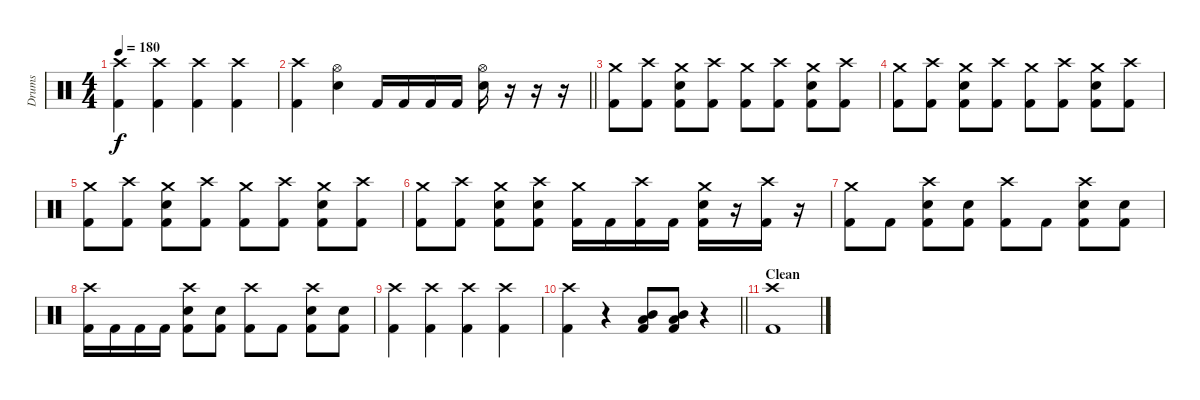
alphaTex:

\track ("Drums" "Drums") {instrument percussion}
\staff {score}
\articulation defaults
\ts (4 4)
\tempo 180
\clef neutral
\ks c
("Crash high (hit)" "Kick (hit) 2").4{dy f} ("Crash high (hit)" "Kick (hit) 2").4 ("Crash high (hit)" "Kick (hit) 2").4 ("Crash high (hit)" "Kick (hit) 2").4 |
\barLineRight lightlight
("Crash high (hit)" "Kick (hit) 2").4 ("Hi-Hat (open)" "Electric Snare (hit)").4 "Kick (hit) 2".16 "Kick (hit) 2".16 "Kick (hit) 2".16 "Kick (hit) 2".16 ("Hi-Hat (open)" "Electric Snare (hit)").16 r.16 r.16 r.16 |
("Crash medium (hit)" "Kick (hit) 2").8 ("Crash high (hit)" "Kick (hit) 2").8 ("Crash medium (hit)" "Electric Snare (hit)" "Kick (hit) 2").8 ("Crash high (hit)" "Kick (hit) 2").8 ("Crash medium (hit)" "Kick (hit) 2").8 ("Crash high (hit)" "Kick (hit) 2").8 ("Crash medium (hit)" "Electric Snare (hit)" "Kick (hit) 2").8 ("Crash high (hit)" "Kick (hit) 2").8 |
("Crash medium (hit)" "Kick (hit) 2").8 ("Crash high (hit)" "Kick (hit) 2").8 ("Crash medium (hit)" "Electric Snare (hit)" "Kick (hit) 2").8 ("Crash high (hit)" "Kick (hit) 2").8 ("Crash medium (hit)" "Kick (hit) 2").8 ("Crash high (hit)" "Kick (hit) 2").8 ("Crash medium (hit)" "Electric Snare (hit)" "Kick (hit) 2").8 ("Crash high (hit)" "Kick (hit) 2").8 |
("Crash medium (hit)" "Kick (hit) 2").8 ("Crash high (hit)" "Kick (hit) 2").8 ("Crash medium (hit)" "Electric Snare (hit)" "Kick (hit) 2").8 ("Crash high (hit)" "Kick (hit) 2").8 ("Crash medium (hit)" "Kick (hit) 2").8 ("Crash high (hit)" "Kick (hit) 2").8 ("Crash medium (hit)" "Electric Snare (hit)" "Kick (hit) 2").8 ("Crash high (hit)" "Kick (hit) 2").8 |
("Crash medium (hit)" "Kick (hit) 2").8 ("Crash high (hit)" "Kick (hit) 2").8 ("Crash medium (hit)" "Electric Snare (hit)" "Kick (hit) 2").8 ("Crash high (hit)" "Electric Snare (hit)" "Kick (hit) 2").8 ("Crash medium (hit)" "Kick (hit) 2").16 "Kick (hit) 2".16 ("Crash high (hit)" "Kick (hit) 2").16 "Kick (hit) 2".16 ("Crash medium (hit)" "Electric Snare (hit)" "Kick (hit) 2").16 r.16 ("Crash high (hit)" "Kick (hit) 2").16 r.16 |
("Crash medium (hit)" "Kick (hit) 2").8 "Kick (hit) 2".8 ("Crash high (hit)" "Electric Snare (hit)" "Kick (hit) 2").8 ("Electric Snare (hit)" "Kick (hit) 2").8 ("Crash high (hit)" "Kick (hit) 2").8 "Kick (hit) 2".8 ("Crash high (hit)" "Electric Snare (hit)" "Kick (hit) 2").8 ("Electric Snare (hit)" "Kick (hit) 2").8 |
("Crash high (hit)" "Kick (hit) 2").16 "Kick (hit) 2".16 "Kick (hit) 2".16 "Kick (hit) 2".16 ("Crash high (hit)" "Electric Snare (hit)" "Kick (hit) 2").8 ("Electric Snare (hit)" "Kick (hit) 2").8 ("Crash high (hit)" "Kick (hit) 2").8 "Kick (hit) 2".8 ("Crash high (hit)" "Electric Snare (hit)" "Kick (hit) 2").8 ("Electric Snare (hit)" "Kick (hit) 2").8 |
("Crash high (hit)" "Kick (hit) 2").4 ("Crash high (hit)" "Kick (hit) 2").4 ("Crash high (hit)" "Kick (hit) 2").4 ("Crash high (hit)" "Kick (hit) 2").4 |
\barLineRight lightlight
("Crash high (hit)" "Kick (hit) 2").4 r.4 ("Mid Tom (hit)" "Low Tom (hit)" "Kick (hit) 2").8 ("Mid Tom (hit)" "Low Tom (hit)" "Kick (hit) 2").8 r.4 |
\section ("" "Clean")
("Crash high (hit)" "Kick (hit) 2").1
